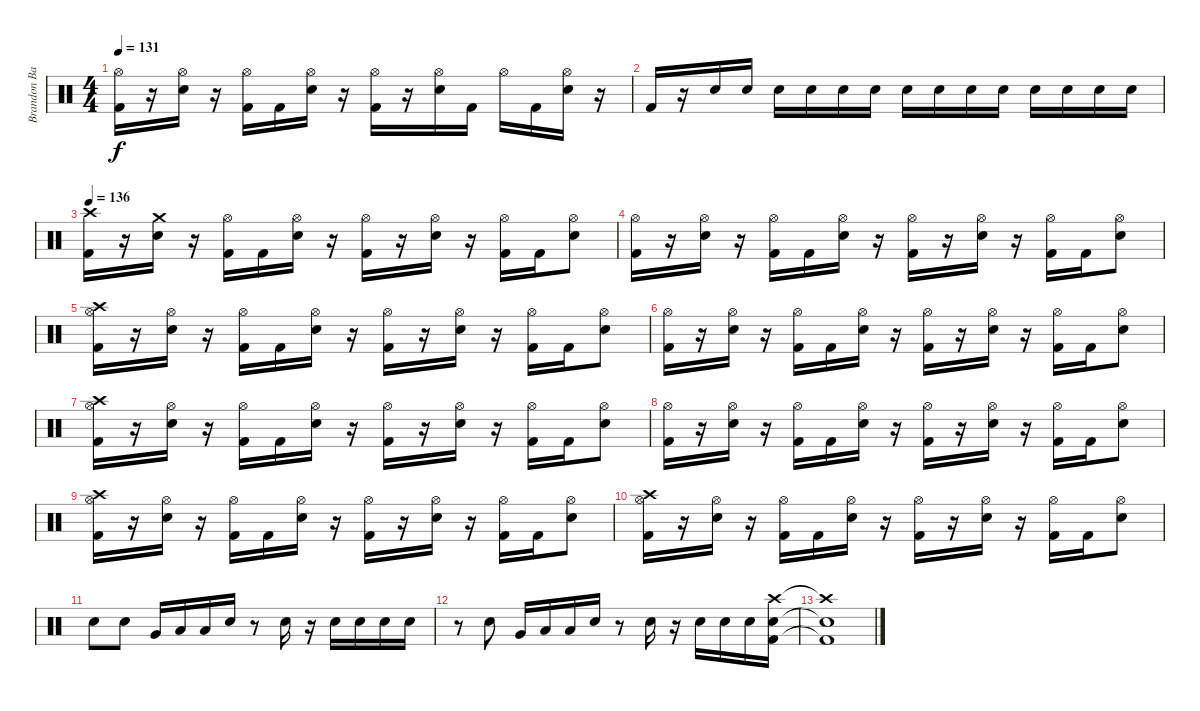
\track ("Brandon Barnes (Drums)" "Brandon Ba") {instrument percussion}
\staff {score}
\articulation defaults
\ts (4 4)
\tempo 131
\clef neutral
\ks c
("Hi-Hat (open)" "Kick (hit) 2").16{dy f} r.16 ("Hi-Hat (open)" "Snare (hit) 2").16 r.16 ("Hi-Hat (open)" "Kick (hit) 2").16 "Kick (hit) 2".16 ("Hi-Hat (open)" "Snare (hit) 2").16 r.16 ("Hi-Hat (open)" "Kick (hit) 2").16 r.16 ("Hi-Hat (open)" "Snare (hit) 2").16 "Kick (hit) 2".16 "Hi-Hat (open)".16 "Kick (hit) 2".16 ("Hi-Hat (open)" "Snare (hit) 2").16 r.16 |
"Kick (hit) 2".16 r.16 "Snare (hit) 2".16 "Snare (hit) 2".16 "Snare (hit) 2".16 "Snare (hit) 2".16 "Snare (hit) 2".16 "Snare (hit) 2".16 "Snare (hit) 2".16 "Snare (hit) 2".16 "Snare (hit) 2".16 "Snare (hit) 2".16 "Snare (hit) 2".16 "Snare (hit) 2".16 "Snare (hit) 2".16 "Snare (hit) 2".16 |
\tempo 136
("Kick (hit) 2" "Crash high (hit)").16 r.16 ("Snare (hit) 2" "Crash medium (hit)").16 r.16 ("Hi-Hat (open)" "Kick (hit) 2").16 "Kick (hit) 2".16 ("Hi-Hat (open)" "Snare (hit) 2").16 r.16 ("Hi-Hat (open)" "Kick (hit) 2").16 r.16 ("Hi-Hat (open)" "Snare (hit) 2").16 r.16 ("Hi-Hat (open)" "Kick (hit) 2").16 "Kick (hit) 2".16 ("Hi-Hat (open)" "Snare (hit) 2").8 |
("Hi-Hat (open)" "Kick (hit) 2").16 r.16 ("Hi-Hat (open)" "Snare (hit) 2").16 r.16 ("Hi-Hat (open)" "Kick (hit) 2").16 "Kick (hit) 2".16 ("Hi-Hat (open)" "Snare (hit) 2").16 r.16 ("Hi-Hat (open)" "Kick (hit) 2").16 r.16 ("Hi-Hat (open)" "Snare (hit) 2").16 r.16 ("Hi-Hat (open)" "Kick (hit) 2").16 "Kick (hit) 2".16 ("Hi-Hat (open)" "Snare (hit) 2").8 |
("Hi-Hat (open)" "Kick (hit) 2" "Crash high (hit)").16 r.16 ("Hi-Hat (open)" "Snare (hit) 2").16 r.16 ("Hi-Hat (open)" "Kick (hit) 2").16 "Kick (hit) 2".16 ("Hi-Hat (open)" "Snare (hit) 2").16 r.16 ("Hi-Hat (open)" "Kick (hit) 2").16 r.16 ("Hi-Hat (open)" "Snare (hit) 2").16 r.16 ("Hi-Hat (open)" "Kick (hit) 2").16 "Kick (hit) 2".16 ("Hi-Hat (open)" "Snare (hit) 2").8 |
("Hi-Hat (open)" "Kick (hit) 2").16 r.16 ("Hi-Hat (open)" "Snare (hit) 2").16 r.16 ("Hi-Hat (open)" "Kick (hit) 2").16 "Kick (hit) 2".16 ("Hi-Hat (open)" "Snare (hit) 2").16 r.16 ("Hi-Hat (open)" "Kick (hit) 2").16 r.16 ("Hi-Hat (open)" "Snare (hit) 2").16 r.16 ("Hi-Hat (open)" "Kick (hit) 2").16 "Kick (hit) 2".16 ("Hi-Hat (open)" "Snare (hit) 2").8 |
("Hi-Hat (open)" "Kick (hit) 2" "Crash high (hit)").16 r.16 ("Hi-Hat (open)" "Snare (hit) 2").16 r.16 ("Hi-Hat (open)" "Kick (hit) 2").16 "Kick (hit) 2".16 ("Hi-Hat (open)" "Snare (hit) 2").16 r.16 ("Hi-Hat (open)" "Kick (hit) 2").16 r.16 ("Hi-Hat (open)" "Snare (hit) 2").16 r.16 ("Hi-Hat (open)" "Kick (hit) 2").16 "Kick (hit) 2".16 ("Hi-Hat (open)" "Snare (hit) 2").8 |
("Hi-Hat (open)" "Kick (hit) 2").16 r.16 ("Hi-Hat (open)" "Snare (hit) 2").16 r.16 ("Hi-Hat (open)" "Kick (hit) 2").16 "Kick (hit) 2".16 ("Hi-Hat (open)" "Snare (hit) 2").16 r.16 ("Hi-Hat (open)" "Kick (hit) 2").16 r.16 ("Hi-Hat (open)" "Snare (hit) 2").16 r.16 ("Hi-Hat (open)" "Kick (hit) 2").16 "Kick (hit) 2".16 ("Hi-Hat (open)" "Snare (hit) 2").8 |
("Hi-Hat (open)" "Kick (hit) 2" "Crash high (hit)").16 r.16 ("Hi-Hat (open)" "Snare (hit) 2").16 r.16 ("Hi-Hat (open)" "Kick (hit) 2").16 "Kick (hit) 2".16 ("Hi-Hat (open)" "Snare (hit) 2").16 r.16 ("Hi-Hat (open)" "Kick (hit) 2").16 r.16 ("Hi-Hat (open)" "Snare (hit) 2").16 r.16 ("Hi-Hat (open)" "Kick (hit) 2").16 "Kick (hit) 2".16 ("Hi-Hat (open)" "Snare (hit) 2").8 |
("Hi-Hat (open)" "Kick (hit) 2" "Crash high (hit)").16 r.16 ("Hi-Hat (open)" "Snare (hit) 2").16 r.16 ("Hi-Hat (open)" "Kick (hit) 2").16 "Kick (hit) 2".16 ("Hi-Hat (open)" "Snare (hit) 2").16 r.16 ("Hi-Hat (open)" "Kick (hit) 2").16 r.16 ("Hi-Hat (open)" "Snare (hit) 2").16 r.16 ("Hi-Hat (open)" "Kick (hit) 2").16 "Kick (hit) 2".16 ("Hi-Hat (open)" "Snare (hit) 2").8 |
"Snare (hit) 2".8 "Snare (hit) 2".8 "Very Low Tom (hit)".16 "Low Floor Tom (hit)".16 "Low Floor Tom (hit)".16 "Snare (hit) 2".16 r.8 "Snare (hit) 2".16 r.16 "Snare (hit) 2".16 "Snare (hit) 2".16 "Snare (hit) 2".16 "Snare (hit) 2".16 |
r.8 "Snare (hit) 2".8 "Very Low Tom (hit)".16 "Low Floor Tom (hit)".16 "Low Floor Tom (hit)".16 "Snare (hit) 2".16 r.8 "Snare (hit) 2".16 r.16 "Snare (hit) 2".16 "Snare (hit) 2".16 "Snare (hit) 2".16 ("Snare (hit) 2" "Kick (hit) 2" "Crash high (hit)").16 |
("Snare (hit) 2"{t} "Kick (hit) 2"{t} "Crash high (hit)"{t}).1
